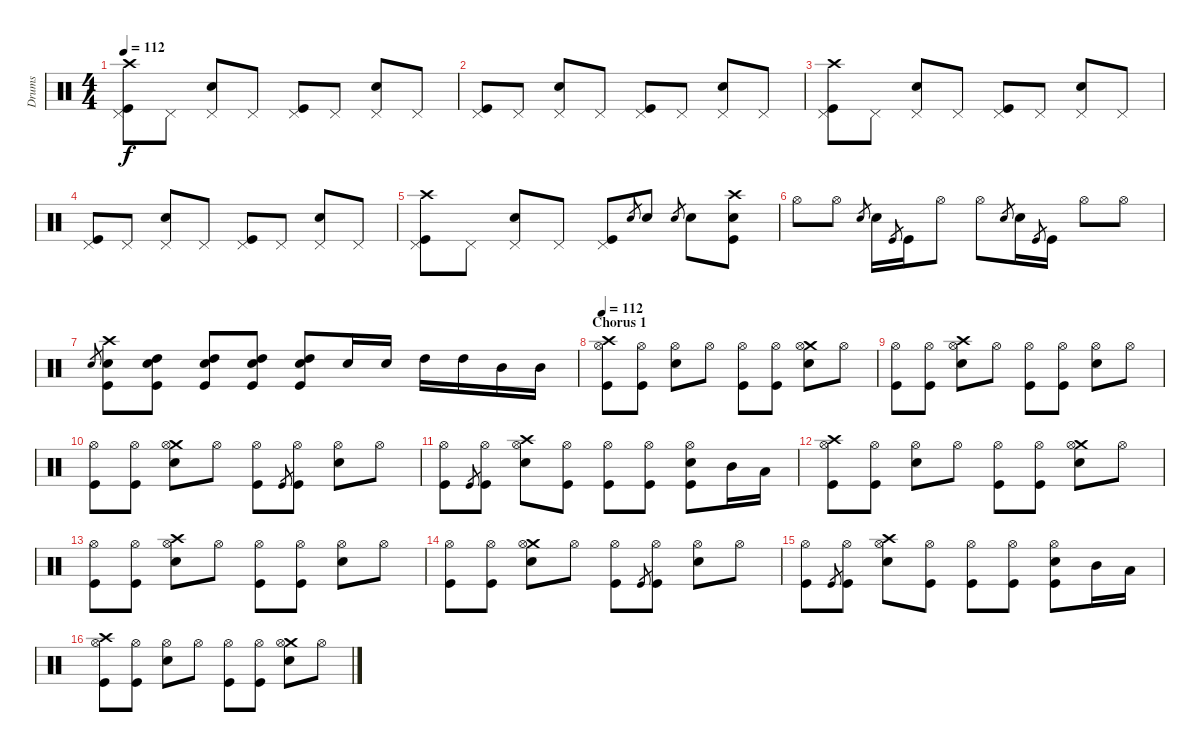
\track ("Drums" "Drums") {instrument percussion}
\staff {score}
\articulation defaults
\ts (4 4)
\tempo 112
\clef neutral
\ks c
("Crash high (hit)" "Pedal Hi-Hat (hit)" "Kick (hit)").8{dy f} "Pedal Hi-Hat (hit)".8 ("Pedal Hi-Hat (hit)" "Snare (hit) 2").8 "Pedal Hi-Hat (hit)".8 ("Pedal Hi-Hat (hit)" "Kick (hit)").8 "Pedal Hi-Hat (hit)".8 ("Pedal Hi-Hat (hit)" "Snare (hit) 2").8 "Pedal Hi-Hat (hit)".8 |
("Pedal Hi-Hat (hit)" "Kick (hit)").8 "Pedal Hi-Hat (hit)".8 ("Pedal Hi-Hat (hit)" "Snare (hit) 2").8 "Pedal Hi-Hat (hit)".8 ("Pedal Hi-Hat (hit)" "Kick (hit)").8 "Pedal Hi-Hat (hit)".8 ("Pedal Hi-Hat (hit)" "Snare (hit) 2").8 "Pedal Hi-Hat (hit)".8 |
("Crash high (hit)" "Pedal Hi-Hat (hit)" "Kick (hit)").8 "Pedal Hi-Hat (hit)".8 ("Pedal Hi-Hat (hit)" "Snare (hit) 2").8 "Pedal Hi-Hat (hit)".8 ("Pedal Hi-Hat (hit)" "Kick (hit)").8 "Pedal Hi-Hat (hit)".8 ("Pedal Hi-Hat (hit)" "Snare (hit) 2").8 "Pedal Hi-Hat (hit)".8 |
("Pedal Hi-Hat (hit)" "Kick (hit)").8 "Pedal Hi-Hat (hit)".8 ("Pedal Hi-Hat (hit)" "Snare (hit) 2").8 "Pedal Hi-Hat (hit)".8 ("Pedal Hi-Hat (hit)" "Kick (hit)").8 "Pedal Hi-Hat (hit)".8 ("Pedal Hi-Hat (hit)" "Snare (hit) 2").8 "Pedal Hi-Hat (hit)".8 |
("Crash high (hit)" "Pedal Hi-Hat (hit)" "Kick (hit)").8 "Pedal Hi-Hat (hit)".8 ("Pedal Hi-Hat (hit)" "Snare (hit) 2").8 "Pedal Hi-Hat (hit)".8 ("Pedal Hi-Hat (hit)" "Kick (hit)").8 "Snare (hit) 2".8{gr} "Snare (hit) 2".8 "Snare (hit) 2".8{gr} "Snare (hit) 2".8 ("Crash high (hit)" "Snare (hit) 2" "Kick (hit)").8 |
"Hi-Hat (open)".8 "Hi-Hat (open)".8 "Snare (hit) 2".8{gr} "Snare (hit) 2".16 "Kick (hit)".8{gr} "Kick (hit)".16 "Hi-Hat (open)".8 "Hi-Hat (open)".8 "Snare (hit) 2".8{gr} "Snare (hit) 2".16 "Kick (hit)".8{gr} "Kick (hit)".16 "Hi-Hat (open)".8 "Hi-Hat (open)".8 |
"Snare (hit) 2"{h}.8{gr} ("Crash high (hit)" "Snare (hit) 2" "Kick (hit)").8 ("Snare (hit) 2" "High Tom (hit)" "Kick (hit)").8 ("Snare (hit) 2" "High Tom (hit)" "Kick (hit)").8 ("Snare (hit) 2" "High Tom (hit)" "Kick (hit)").8 ("Snare (hit) 2" "High Tom (hit)" "Kick (hit)").8 "Snare (hit) 2".16 "Snare (hit) 2".16 "High Tom (hit)".16 "High Tom (hit)".16 "Mid Tom (hit)".16 "Mid Tom (hit)".16 |
\section ("" "Chorus 1")
\tempo 112
("Crash high (hit)" "Hi-Hat (open)" "Kick (hit)").8{volume 16} ("Hi-Hat (open)" "Kick (hit)").8 ("Hi-Hat (open)" "Snare (hit) 2").8 "Hi-Hat (open)".8 ("Hi-Hat (open)" "Kick (hit)").8 ("Hi-Hat (open)" "Kick (hit)").8 ("Crash medium (hit)" "Hi-Hat (open)" "Snare (hit) 2").8 "Hi-Hat (open)".8 |
("Hi-Hat (open)" "Kick (hit)").8 ("Hi-Hat (open)" "Kick (hit)").8 ("Crash high (hit)" "Hi-Hat (open)" "Snare (hit) 2").8 "Hi-Hat (open)".8 ("Hi-Hat (open)" "Kick (hit)").8 ("Hi-Hat (open)" "Kick (hit)").8 ("Hi-Hat (open)" "Snare (hit) 2").8 "Hi-Hat (open)".8 |
("Hi-Hat (open)" "Kick (hit)").8 ("Hi-Hat (open)" "Kick (hit)").8 ("Crash medium (hit)" "Hi-Hat (open)" "Snare (hit) 2").8 "Hi-Hat (open)".8 ("Hi-Hat (open)" "Kick (hit)").8 "Kick (hit)".8{gr} ("Hi-Hat (open)" "Kick (hit)").8 ("Hi-Hat (open)" "Snare (hit) 2").8 "Hi-Hat (open)".8 |
("Hi-Hat (open)" "Kick (hit)").8 "Kick (hit)".8{gr} ("Hi-Hat (open)" "Kick (hit)").8 ("Crash high (hit)" "Hi-Hat (open)" "Snare (hit) 2").8 ("Hi-Hat (open)" "Kick (hit)").8 ("Hi-Hat (open)" "Kick (hit)").8 ("Hi-Hat (open)" "Kick (hit)").8 ("Hi-Hat (open)" "Snare (hit) 2" "Kick (hit)").8 "Mid Tom (hit)".16 "Low Tom (hit)".16 |
("Crash high (hit)" "Hi-Hat (open)" "Kick (hit)").8 ("Hi-Hat (open)" "Kick (hit)").8 ("Hi-Hat (open)" "Snare (hit) 2").8 "Hi-Hat (open)".8 ("Hi-Hat (open)" "Kick (hit)").8 ("Hi-Hat (open)" "Kick (hit)").8 ("Crash medium (hit)" "Hi-Hat (open)" "Snare (hit) 2").8 "Hi-Hat (open)".8 |
("Hi-Hat (open)" "Kick (hit)").8 ("Hi-Hat (open)" "Kick (hit)").8 ("Crash high (hit)" "Hi-Hat (open)" "Snare (hit) 2").8 "Hi-Hat (open)".8 ("Hi-Hat (open)" "Kick (hit)").8 ("Hi-Hat (open)" "Kick (hit)").8 ("Hi-Hat (open)" "Snare (hit) 2").8 "Hi-Hat (open)".8 |
("Hi-Hat (open)" "Kick (hit)").8 ("Hi-Hat (open)" "Kick (hit)").8 ("Crash medium (hit)" "Hi-Hat (open)" "Snare (hit) 2").8 "Hi-Hat (open)".8 ("Hi-Hat (open)" "Kick (hit)").8 "Kick (hit)".8{gr} ("Hi-Hat (open)" "Kick (hit)").8 ("Hi-Hat (open)" "Snare (hit) 2").8 "Hi-Hat (open)".8 |
("Hi-Hat (open)" "Kick (hit)").8 "Kick (hit)".8{gr} ("Hi-Hat (open)" "Kick (hit)").8 ("Crash high (hit)" "Hi-Hat (open)" "Snare (hit) 2").8 ("Hi-Hat (open)" "Kick (hit)").8 ("Hi-Hat (open)" "Kick (hit)").8 ("Hi-Hat (open)" "Kick (hit)").8 ("Hi-Hat (open)" "Snare (hit) 2" "Kick (hit)").8 "Mid Tom (hit)".16 "Low Tom (hit)".16 |
("Crash high (hit)" "Hi-Hat (open)" "Kick (hit)").8 ("Hi-Hat (open)" "Kick (hit)").8 ("Hi-Hat (open)" "Snare (hit) 2").8 "Hi-Hat (open)".8 ("Hi-Hat (open)" "Kick (hit)").8 ("Hi-Hat (open)" "Kick (hit)").8 ("Crash medium (hit)" "Hi-Hat (open)" "Snare (hit) 2").8 "Hi-Hat (open)".8
